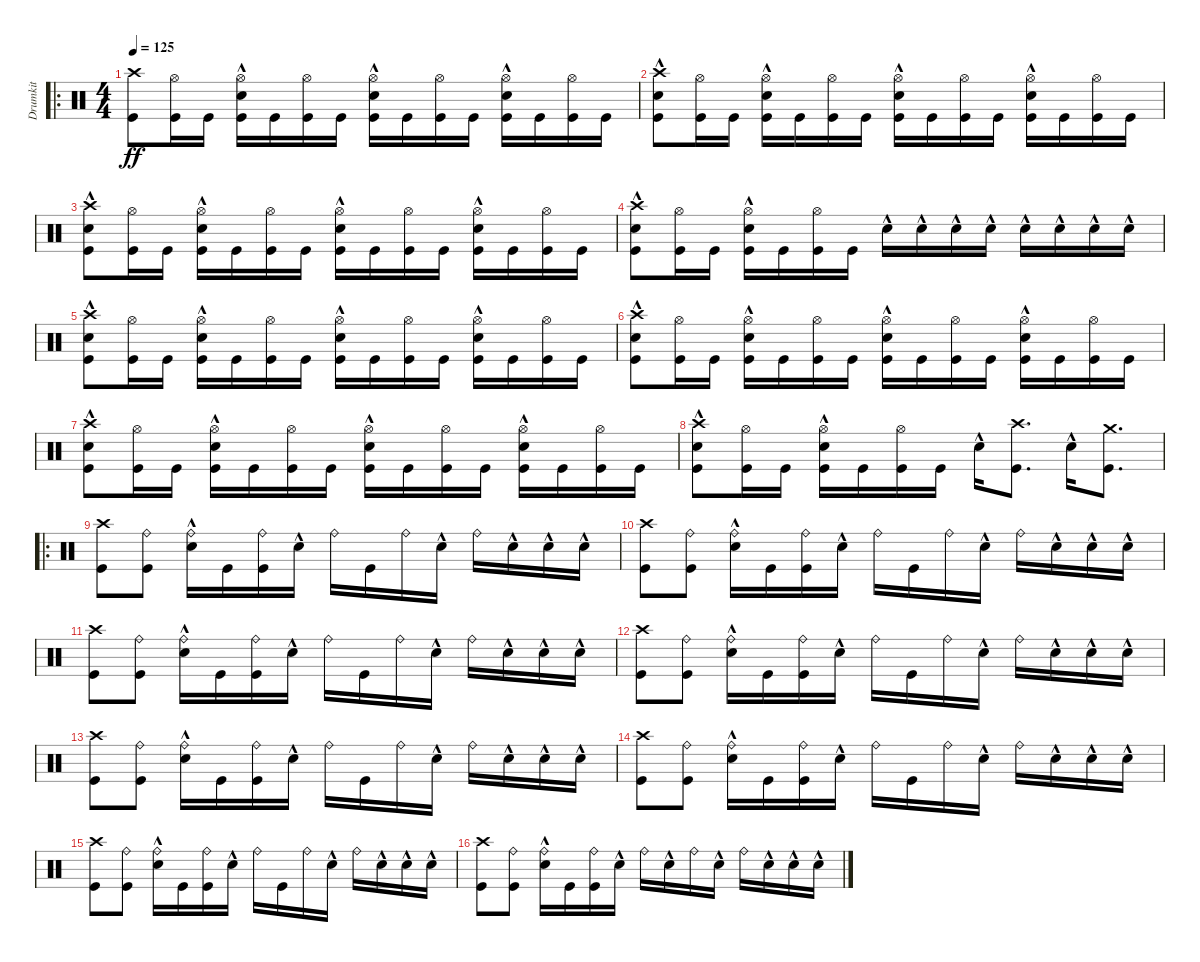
\track ("Drumkit" "Drumkit") {instrument percussion}
\staff {score}
\articulation defaults
\ro
\ts (4 4)
\tempo 125
\clef neutral
\ks c
("Kick (hit)" "Crash high (hit)").8{dy ff} ("Kick (hit)" "Hi-Hat (open)").16 "Kick (hit)".16 ("Kick (hit)" "Snare (hit) 2"{hac} "Hi-Hat (open)").16 "Kick (hit)".16 ("Kick (hit)" "Hi-Hat (open)").16 "Kick (hit)".16 ("Kick (hit)" "Snare (hit) 2"{hac} "Hi-Hat (open)").16 "Kick (hit)".16 ("Kick (hit)" "Hi-Hat (open)").16 "Kick (hit)".16 ("Kick (hit)" "Snare (hit) 2"{hac} "Hi-Hat (open)").16 "Kick (hit)".16 ("Kick (hit)" "Hi-Hat (open)").16 "Kick (hit)".16 |
("Kick (hit)" "Crash high (hit)" "Snare (hit) 2"{hac}).8 ("Kick (hit)" "Hi-Hat (open)").16 "Kick (hit)".16 ("Kick (hit)" "Snare (hit) 2"{hac} "Hi-Hat (open)").16 "Kick (hit)".16 ("Kick (hit)" "Hi-Hat (open)").16 "Kick (hit)".16 ("Kick (hit)" "Snare (hit) 2"{hac} "Hi-Hat (open)").16 "Kick (hit)".16 ("Kick (hit)" "Hi-Hat (open)").16 "Kick (hit)".16 ("Kick (hit)" "Snare (hit) 2"{hac} "Hi-Hat (open)").16 "Kick (hit)".16 ("Kick (hit)" "Hi-Hat (open)").16 "Kick (hit)".16 |
("Kick (hit)" "Crash high (hit)" "Snare (hit) 2"{hac}).8 ("Kick (hit)" "Hi-Hat (open)").16 "Kick (hit)".16 ("Kick (hit)" "Snare (hit) 2"{hac} "Hi-Hat (open)").16 "Kick (hit)".16 ("Kick (hit)" "Hi-Hat (open)").16 "Kick (hit)".16 ("Kick (hit)" "Snare (hit) 2"{hac} "Hi-Hat (open)").16 "Kick (hit)".16 ("Kick (hit)" "Hi-Hat (open)").16 "Kick (hit)".16 ("Kick (hit)" "Snare (hit) 2"{hac} "Hi-Hat (open)").16 "Kick (hit)".16 ("Kick (hit)" "Hi-Hat (open)").16 "Kick (hit)".16 |
("Kick (hit)" "Crash high (hit)" "Snare (hit) 2"{hac}).8 ("Kick (hit)" "Hi-Hat (open)").16 "Kick (hit)".16 ("Kick (hit)" "Snare (hit) 2"{hac} "Hi-Hat (open)").16 "Kick (hit)".16 ("Kick (hit)" "Hi-Hat (open)").16 "Kick (hit)".16 "Snare (hit) 2"{hac}.16 "Snare (hit) 2"{hac}.16 "Snare (hit) 2"{hac}.16 "Snare (hit) 2"{hac}.16 "Snare (hit) 2"{hac}.16 "Snare (hit) 2"{hac}.16 "Snare (hit) 2"{hac}.16 "Snare (hit) 2"{hac}.16 |
("Kick (hit)" "Crash high (hit)" "Snare (hit) 2"{hac}).8 ("Kick (hit)" "Hi-Hat (open)").16 "Kick (hit)".16 ("Kick (hit)" "Snare (hit) 2"{hac} "Hi-Hat (open)").16 "Kick (hit)".16 ("Kick (hit)" "Hi-Hat (open)").16 "Kick (hit)".16 ("Kick (hit)" "Snare (hit) 2"{hac} "Hi-Hat (open)").16 "Kick (hit)".16 ("Kick (hit)" "Hi-Hat (open)").16 "Kick (hit)".16 ("Kick (hit)" "Snare (hit) 2"{hac} "Hi-Hat (open)").16 "Kick (hit)".16 ("Kick (hit)" "Hi-Hat (open)").16 "Kick (hit)".16 |
("Kick (hit)" "Crash high (hit)" "Snare (hit) 2"{hac}).8 ("Kick (hit)" "Hi-Hat (open)").16 "Kick (hit)".16 ("Kick (hit)" "Snare (hit) 2"{hac} "Hi-Hat (open)").16 "Kick (hit)".16 ("Kick (hit)" "Hi-Hat (open)").16 "Kick (hit)".16 ("Kick (hit)" "Snare (hit) 2"{hac} "Hi-Hat (open)").16 "Kick (hit)".16 ("Kick (hit)" "Hi-Hat (open)").16 "Kick (hit)".16 ("Kick (hit)" "Snare (hit) 2"{hac} "Hi-Hat (open)").16 "Kick (hit)".16 ("Kick (hit)" "Hi-Hat (open)").16 "Kick (hit)".16 |
("Kick (hit)" "Crash high (hit)" "Snare (hit) 2"{hac}).8 ("Kick (hit)" "Hi-Hat (open)").16 "Kick (hit)".16 ("Kick (hit)" "Snare (hit) 2"{hac} "Hi-Hat (open)").16 "Kick (hit)".16 ("Kick (hit)" "Hi-Hat (open)").16 "Kick (hit)".16 ("Kick (hit)" "Snare (hit) 2"{hac} "Hi-Hat (open)").16 "Kick (hit)".16 ("Kick (hit)" "Hi-Hat (open)").16 "Kick (hit)".16 ("Kick (hit)" "Snare (hit) 2"{hac} "Hi-Hat (open)").16 "Kick (hit)".16 ("Kick (hit)" "Hi-Hat (open)").16 "Kick (hit)".16 |
("Kick (hit)" "Crash high (hit)" "Snare (hit) 2"{hac}).8 ("Kick (hit)" "Hi-Hat (open)").16 "Kick (hit)".16 ("Kick (hit)" "Snare (hit) 2"{hac} "Hi-Hat (open)").16 "Kick (hit)".16 ("Kick (hit)" "Hi-Hat (open)").16 "Kick (hit)".16 "Snare (hit) 2"{hac}.16 ("Kick (hit)" "Crash high (hit)").8{d} "Snare (hit) 2"{hac}.16 ("Kick (hit)" "Crash medium (hit)").8{d} |
\ro
("Kick (hit)" "Crash high (hit)").8 ("Kick (hit)" "Ride (bell)").8 ("Snare (hit) 2"{hac} "Ride (bell)").16 "Kick (hit)".16 ("Kick (hit)" "Ride (bell)").16 "Snare (hit) 2"{hac}.16 "Ride (bell)".16 "Kick (hit)".16 "Ride (bell)".16 "Snare (hit) 2"{hac}.16 "Ride (bell)".16 "Snare (hit) 2"{hac}.16 "Snare (hit) 2"{hac}.16 "Snare (hit) 2"{hac}.16 |
("Kick (hit)" "Crash high (hit)").8 ("Kick (hit)" "Ride (bell)").8 ("Snare (hit) 2"{hac} "Ride (bell)").16 "Kick (hit)".16 ("Kick (hit)" "Ride (bell)").16 "Snare (hit) 2"{hac}.16 "Ride (bell)".16 "Kick (hit)".16 "Ride (bell)".16 "Snare (hit) 2"{hac}.16 "Ride (bell)".16 "Snare (hit) 2"{hac}.16 "Snare (hit) 2"{hac}.16 "Snare (hit) 2"{hac}.16 |
("Kick (hit)" "Crash high (hit)").8 ("Kick (hit)" "Ride (bell)").8 ("Snare (hit) 2"{hac} "Ride (bell)").16 "Kick (hit)".16 ("Kick (hit)" "Ride (bell)").16 "Snare (hit) 2"{hac}.16 "Ride (bell)".16 "Kick (hit)".16 "Ride (bell)".16 "Snare (hit) 2"{hac}.16 "Ride (bell)".16 "Snare (hit) 2"{hac}.16 "Snare (hit) 2"{hac}.16 "Snare (hit) 2"{hac}.16 |
("Kick (hit)" "Crash high (hit)").8 ("Kick (hit)" "Ride (bell)").8 ("Snare (hit) 2"{hac} "Ride (bell)").16 "Kick (hit)".16 ("Kick (hit)" "Ride (bell)").16 "Snare (hit) 2"{hac}.16 "Ride (bell)".16 "Kick (hit)".16 "Ride (bell)".16 "Snare (hit) 2"{hac}.16 "Ride (bell)".16 "Snare (hit) 2"{hac}.16 "Snare (hit) 2"{hac}.16 "Snare (hit) 2"{hac}.16 |
("Kick (hit)" "Crash high (hit)").8 ("Kick (hit)" "Ride (bell)").8 ("Snare (hit) 2"{hac} "Ride (bell)").16 "Kick (hit)".16 ("Kick (hit)" "Ride (bell)").16 "Snare (hit) 2"{hac}.16 "Ride (bell)".16 "Kick (hit)".16 "Ride (bell)".16 "Snare (hit) 2"{hac}.16 "Ride (bell)".16 "Snare (hit) 2"{hac}.16 "Snare (hit) 2"{hac}.16 "Snare (hit) 2"{hac}.16 |
("Kick (hit)" "Crash high (hit)").8 ("Kick (hit)" "Ride (bell)").8 ("Snare (hit) 2"{hac} "Ride (bell)").16 "Kick (hit)".16 ("Kick (hit)" "Ride (bell)").16 "Snare (hit) 2"{hac}.16 "Ride (bell)".16 "Kick (hit)".16 "Ride (bell)".16 "Snare (hit) 2"{hac}.16 "Ride (bell)".16 "Snare (hit) 2"{hac}.16 "Snare (hit) 2"{hac}.16 "Snare (hit) 2"{hac}.16 |
("Kick (hit)" "Crash high (hit)").8 ("Kick (hit)" "Ride (bell)").8 ("Snare (hit) 2"{hac} "Ride (bell)").16 "Kick (hit)".16 ("Kick (hit)" "Ride (bell)").16 "Snare (hit) 2"{hac}.16 "Ride (bell)".16 "Kick (hit)".16 "Ride (bell)".16 "Snare (hit) 2"{hac}.16 "Ride (bell)".16 "Snare (hit) 2"{hac}.16 "Snare (hit) 2"{hac}.16 "Snare (hit) 2"{hac}.16 |
("Kick (hit)" "Crash high (hit)").8 ("Kick (hit)" "Ride (bell)").8 ("Snare (hit) 2"{hac} "Ride (bell)").16 "Kick (hit)".16 ("Kick (hit)" "Ride (bell)").16 "Snare (hit) 2"{hac}.16 "Ride (bell)".16 "Snare (hit) 2"{hac}.16 "Ride (bell)".16 "Snare (hit) 2"{hac}.16 "Ride (bell)".16 "Snare (hit) 2"{hac}.16 "Snare (hit) 2"{hac}.16 "Snare (hit) 2"{hac}.16
